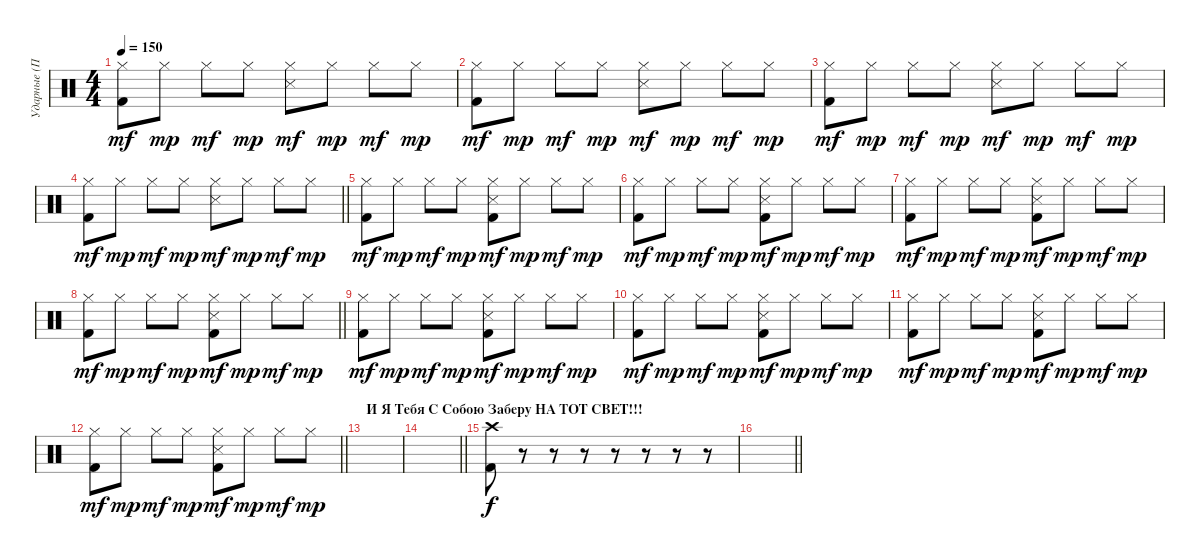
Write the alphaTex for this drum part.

\track ("Ударные (Поручик)" "Ударные (П") {instrument percussion}
\staff {score}
\articulation defaults
\ts (4 4)
\tempo 150
\clef neutral
\ks c
("Hi-Hat (closed)" "Kick (hit) 2").8{dy mf} "Hi-Hat (closed)".8{dy mp} "Hi-Hat (closed)".8{dy mf} "Hi-Hat (closed)".8{dy mp} ("Hi-Hat (closed)" "Snare (side stick) 3").8{dy mf} "Hi-Hat (closed)".8{dy mp} "Hi-Hat (closed)".8{dy mf} "Hi-Hat (closed)".8{dy mp} |
("Hi-Hat (closed)" "Kick (hit) 2").8{dy mf} "Hi-Hat (closed)".8{dy mp} "Hi-Hat (closed)".8{dy mf} "Hi-Hat (closed)".8{dy mp} ("Hi-Hat (closed)" "Snare (side stick) 3").8{dy mf} "Hi-Hat (closed)".8{dy mp} "Hi-Hat (closed)".8{dy mf} "Hi-Hat (closed)".8{dy mp} |
("Hi-Hat (closed)" "Kick (hit) 2").8{dy mf} "Hi-Hat (closed)".8{dy mp} "Hi-Hat (closed)".8{dy mf} "Hi-Hat (closed)".8{dy mp} ("Hi-Hat (closed)" "Snare (side stick) 3").8{dy mf} "Hi-Hat (closed)".8{dy mp} "Hi-Hat (closed)".8{dy mf} "Hi-Hat (closed)".8{dy mp} |
\barLineRight lightlight
("Hi-Hat (closed)" "Kick (hit) 2").8{dy mf} "Hi-Hat (closed)".8{dy mp} "Hi-Hat (closed)".8{dy mf} "Hi-Hat (closed)".8{dy mp} ("Hi-Hat (closed)" "Snare (side stick) 3").8{dy mf} "Hi-Hat (closed)".8{dy mp} "Hi-Hat (closed)".8{dy mf} "Hi-Hat (closed)".8{dy mp} |
("Hi-Hat (closed)" "Kick (hit) 2").8{dy mf} "Hi-Hat (closed)".8{dy mp} "Hi-Hat (closed)".8{dy mf} "Hi-Hat (closed)".8{dy mp} ("Hi-Hat (closed)" "Kick (hit) 2" "Snare (side stick) 3").8{dy mf} "Hi-Hat (closed)".8{dy mp} "Hi-Hat (closed)".8{dy mf} "Hi-Hat (closed)".8{dy mp} |
("Hi-Hat (closed)" "Kick (hit) 2").8{dy mf} "Hi-Hat (closed)".8{dy mp} "Hi-Hat (closed)".8{dy mf} "Hi-Hat (closed)".8{dy mp} ("Hi-Hat (closed)" "Kick (hit) 2" "Snare (side stick) 3").8{dy mf} "Hi-Hat (closed)".8{dy mp} "Hi-Hat (closed)".8{dy mf} "Hi-Hat (closed)".8{dy mp} |
("Hi-Hat (closed)" "Kick (hit) 2").8{dy mf} "Hi-Hat (closed)".8{dy mp} "Hi-Hat (closed)".8{dy mf} "Hi-Hat (closed)".8{dy mp} ("Hi-Hat (closed)" "Kick (hit) 2" "Snare (side stick) 3").8{dy mf} "Hi-Hat (closed)".8{dy mp} "Hi-Hat (closed)".8{dy mf} "Hi-Hat (closed)".8{dy mp} |
\barLineRight lightlight
("Hi-Hat (closed)" "Kick (hit) 2").8{dy mf} "Hi-Hat (closed)".8{dy mp} "Hi-Hat (closed)".8{dy mf} "Hi-Hat (closed)".8{dy mp} ("Hi-Hat (closed)" "Kick (hit) 2" "Snare (side stick) 3").8{dy mf} "Hi-Hat (closed)".8{dy mp} "Hi-Hat (closed)".8{dy mf} "Hi-Hat (closed)".8{dy mp} |
("Hi-Hat (closed)" "Kick (hit) 2").8{dy mf} "Hi-Hat (closed)".8{dy mp} "Hi-Hat (closed)".8{dy mf} "Hi-Hat (closed)".8{dy mp} ("Hi-Hat (closed)" "Kick (hit) 2" "Snare (side stick) 3").8{dy mf} "Hi-Hat (closed)".8{dy mp} "Hi-Hat (closed)".8{dy mf} "Hi-Hat (closed)".8{dy mp} |
("Hi-Hat (closed)" "Kick (hit) 2").8{dy mf} "Hi-Hat (closed)".8{dy mp} "Hi-Hat (closed)".8{dy mf} "Hi-Hat (closed)".8{dy mp} ("Hi-Hat (closed)" "Kick (hit) 2" "Snare (side stick) 3").8{dy mf} "Hi-Hat (closed)".8{dy mp} "Hi-Hat (closed)".8{dy mf} "Hi-Hat (closed)".8{dy mp} |
("Hi-Hat (closed)" "Kick (hit) 2").8{dy mf} "Hi-Hat (closed)".8{dy mp} "Hi-Hat (closed)".8{dy mf} "Hi-Hat (closed)".8{dy mp} ("Hi-Hat (closed)" "Kick (hit) 2" "Snare (side stick) 3").8{dy mf} "Hi-Hat (closed)".8{dy mp} "Hi-Hat (closed)".8{dy mf} "Hi-Hat (closed)".8{dy mp} |
\barLineRight lightlight
("Hi-Hat (closed)" "Kick (hit) 2").8{dy mf} "Hi-Hat (closed)".8{dy mp} "Hi-Hat (closed)".8{dy mf} "Hi-Hat (closed)".8{dy mp} ("Hi-Hat (closed)" "Kick (hit) 2" "Snare (side stick) 3").8{dy mf} "Hi-Hat (closed)".8{dy mp} "Hi-Hat (closed)".8{dy mf} "Hi-Hat (closed)".8{dy mp} |
\section ("" "И Я Тебя С Собою Заберу НА ТОТ СВЕТ!!!")
|
\barLineRight lightlight
|
("Crash high (hit)" "Kick (hit) 2").8{dy f} r.8 r.8 r.8 r.8 r.8 r.8 r.8 |
\barLineRight lightlight
